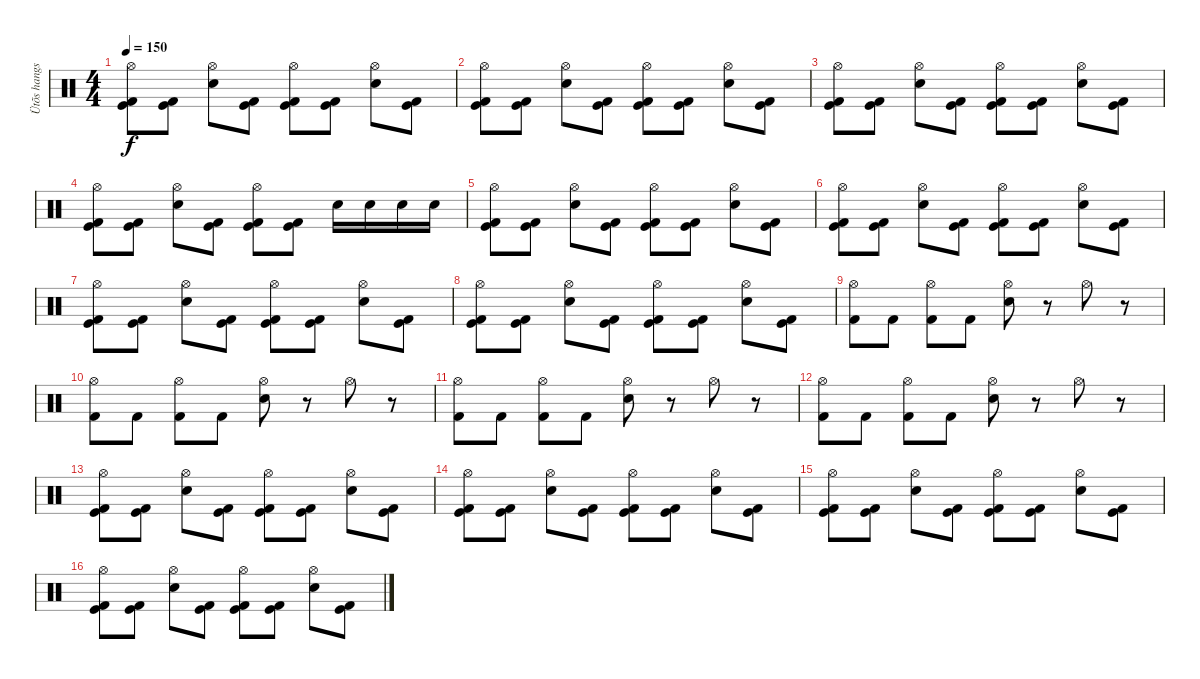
\track ("Ütõs hangszer" "Ütõs hangs") {instrument percussion}
\staff {score}
\articulation defaults
\ts (4 4)
\tempo 150
\clef neutral
\ks c
("Hi-Hat (open)" "Kick (hit)" "Kick (hit) 2").8{dy f} ("Kick (hit)" "Kick (hit) 2").8 ("Hi-Hat (open)" "Electric Snare (hit)").8 ("Kick (hit)" "Kick (hit) 2").8 ("Hi-Hat (open)" "Kick (hit)" "Kick (hit) 2").8 ("Kick (hit)" "Kick (hit) 2").8 ("Hi-Hat (open)" "Electric Snare (hit)").8 ("Kick (hit)" "Kick (hit) 2").8 |
("Hi-Hat (open)" "Kick (hit)" "Kick (hit) 2").8 ("Kick (hit)" "Kick (hit) 2").8 ("Hi-Hat (open)" "Electric Snare (hit)").8 ("Kick (hit)" "Kick (hit) 2").8 ("Hi-Hat (open)" "Kick (hit)" "Kick (hit) 2").8 ("Kick (hit)" "Kick (hit) 2").8 ("Hi-Hat (open)" "Electric Snare (hit)").8 ("Kick (hit)" "Kick (hit) 2").8 |
("Hi-Hat (open)" "Kick (hit)" "Kick (hit) 2").8 ("Kick (hit)" "Kick (hit) 2").8 ("Hi-Hat (open)" "Electric Snare (hit)").8 ("Kick (hit)" "Kick (hit) 2").8 ("Hi-Hat (open)" "Kick (hit)" "Kick (hit) 2").8 ("Kick (hit)" "Kick (hit) 2").8 ("Hi-Hat (open)" "Electric Snare (hit)").8 ("Kick (hit)" "Kick (hit) 2").8 |
("Hi-Hat (open)" "Kick (hit)" "Kick (hit) 2").8 ("Kick (hit)" "Kick (hit) 2").8 ("Hi-Hat (open)" "Electric Snare (hit)").8 ("Kick (hit)" "Kick (hit) 2").8 ("Hi-Hat (open)" "Kick (hit)" "Kick (hit) 2").8 ("Kick (hit)" "Kick (hit) 2").8 "Electric Snare (hit)".16 "Electric Snare (hit)".16 "Electric Snare (hit)".16 "Electric Snare (hit)".16 |
("Hi-Hat (open)" "Kick (hit)" "Kick (hit) 2").8 ("Kick (hit)" "Kick (hit) 2").8 ("Hi-Hat (open)" "Electric Snare (hit)").8 ("Kick (hit)" "Kick (hit) 2").8 ("Hi-Hat (open)" "Kick (hit)" "Kick (hit) 2").8 ("Kick (hit)" "Kick (hit) 2").8 ("Hi-Hat (open)" "Electric Snare (hit)").8 ("Kick (hit)" "Kick (hit) 2").8 |
("Hi-Hat (open)" "Kick (hit)" "Kick (hit) 2").8 ("Kick (hit)" "Kick (hit) 2").8 ("Hi-Hat (open)" "Electric Snare (hit)").8 ("Kick (hit)" "Kick (hit) 2").8 ("Hi-Hat (open)" "Kick (hit)" "Kick (hit) 2").8 ("Kick (hit)" "Kick (hit) 2").8 ("Hi-Hat (open)" "Electric Snare (hit)").8 ("Kick (hit)" "Kick (hit) 2").8 |
("Hi-Hat (open)" "Kick (hit)" "Kick (hit) 2").8 ("Kick (hit)" "Kick (hit) 2").8 ("Hi-Hat (open)" "Electric Snare (hit)").8 ("Kick (hit)" "Kick (hit) 2").8 ("Hi-Hat (open)" "Kick (hit)" "Kick (hit) 2").8 ("Kick (hit)" "Kick (hit) 2").8 ("Hi-Hat (open)" "Electric Snare (hit)").8 ("Kick (hit)" "Kick (hit) 2").8 |
("Hi-Hat (open)" "Kick (hit)" "Kick (hit) 2").8 ("Kick (hit)" "Kick (hit) 2").8 ("Hi-Hat (open)" "Electric Snare (hit)").8 ("Kick (hit)" "Kick (hit) 2").8 ("Hi-Hat (open)" "Kick (hit)" "Kick (hit) 2").8 ("Kick (hit)" "Kick (hit) 2").8 ("Hi-Hat (open)" "Electric Snare (hit)").8 ("Kick (hit)" "Kick (hit) 2").8 |
("Hi-Hat (open)" "Kick (hit) 2").8 "Kick (hit) 2".8 ("Hi-Hat (open)" "Kick (hit) 2").8 "Kick (hit) 2".8 ("Hi-Hat (open)" "Electric Snare (hit)").8 r.8 "Hi-Hat (open)".8 r.8 |
("Hi-Hat (open)" "Kick (hit) 2").8 "Kick (hit) 2".8 ("Hi-Hat (open)" "Kick (hit) 2").8 "Kick (hit) 2".8 ("Hi-Hat (open)" "Electric Snare (hit)").8 r.8 "Hi-Hat (open)".8 r.8 |
("Hi-Hat (open)" "Kick (hit) 2").8 "Kick (hit) 2".8 ("Hi-Hat (open)" "Kick (hit) 2").8 "Kick (hit) 2".8 ("Hi-Hat (open)" "Electric Snare (hit)").8 r.8 "Hi-Hat (open)".8 r.8 |
("Hi-Hat (open)" "Kick (hit) 2").8 "Kick (hit) 2".8 ("Hi-Hat (open)" "Kick (hit) 2").8 "Kick (hit) 2".8 ("Hi-Hat (open)" "Electric Snare (hit)").8 r.8 "Hi-Hat (open)".8 r.8 |
("Hi-Hat (open)" "Kick (hit)" "Kick (hit) 2").8 ("Kick (hit)" "Kick (hit) 2").8 ("Hi-Hat (open)" "Electric Snare (hit)").8 ("Kick (hit)" "Kick (hit) 2").8 ("Hi-Hat (open)" "Kick (hit)" "Kick (hit) 2").8 ("Kick (hit)" "Kick (hit) 2").8 ("Hi-Hat (open)" "Electric Snare (hit)").8 ("Kick (hit)" "Kick (hit) 2").8 |
("Hi-Hat (open)" "Kick (hit)" "Kick (hit) 2").8 ("Kick (hit)" "Kick (hit) 2").8 ("Hi-Hat (open)" "Electric Snare (hit)").8 ("Kick (hit)" "Kick (hit) 2").8 ("Hi-Hat (open)" "Kick (hit)" "Kick (hit) 2").8 ("Kick (hit)" "Kick (hit) 2").8 ("Hi-Hat (open)" "Electric Snare (hit)").8 ("Kick (hit)" "Kick (hit) 2").8 |
("Hi-Hat (open)" "Kick (hit)" "Kick (hit) 2").8 ("Kick (hit)" "Kick (hit) 2").8 ("Hi-Hat (open)" "Electric Snare (hit)").8 ("Kick (hit)" "Kick (hit) 2").8 ("Hi-Hat (open)" "Kick (hit)" "Kick (hit) 2").8 ("Kick (hit)" "Kick (hit) 2").8 ("Hi-Hat (open)" "Electric Snare (hit)").8 ("Kick (hit)" "Kick (hit) 2").8 |
("Hi-Hat (open)" "Kick (hit)" "Kick (hit) 2").8 ("Kick (hit)" "Kick (hit) 2").8 ("Hi-Hat (open)" "Electric Snare (hit)").8 ("Kick (hit)" "Kick (hit) 2").8 ("Hi-Hat (open)" "Kick (hit)" "Kick (hit) 2").8 ("Kick (hit)" "Kick (hit) 2").8 ("Hi-Hat (open)" "Electric Snare (hit)").8 ("Kick (hit)" "Kick (hit) 2").8
